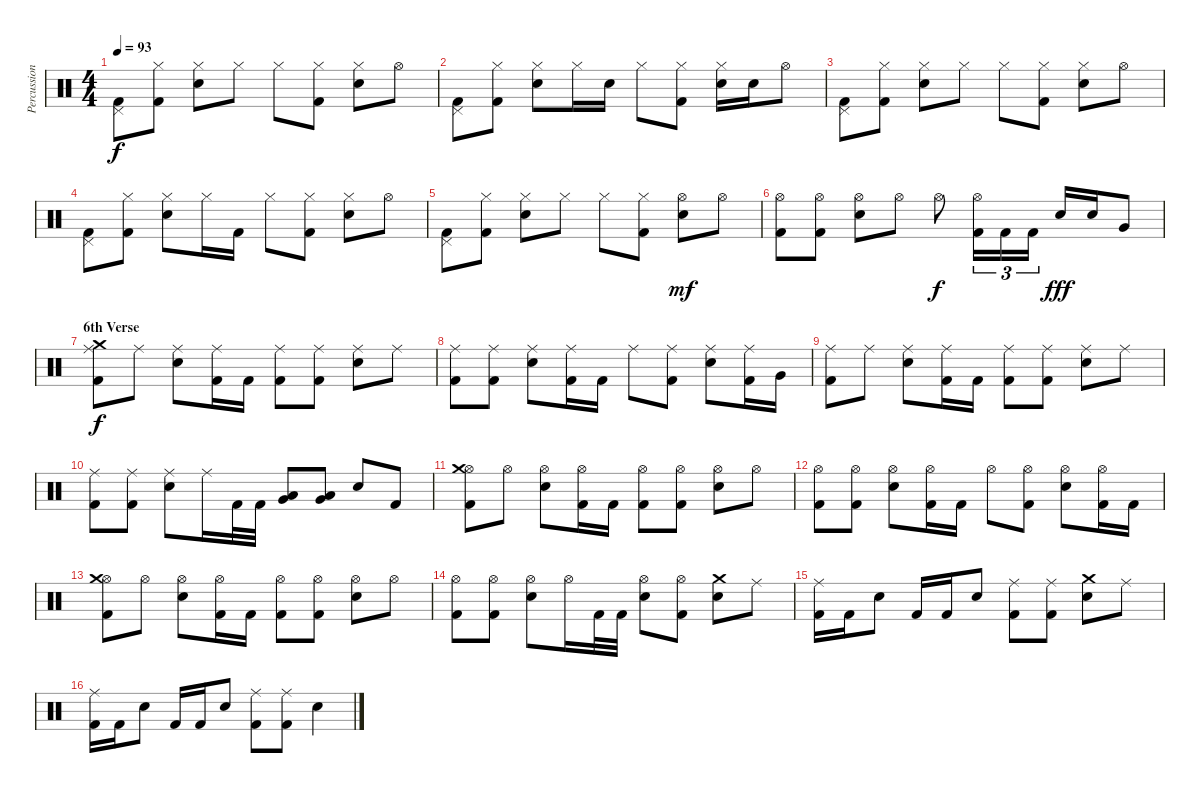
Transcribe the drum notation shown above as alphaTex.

\track ("Percussion" "Percussion") {instrument percussion}
\staff {score}
\articulation defaults
\ts (4 4)
\tempo 93
\clef neutral
\ks c
("Kick (hit) 2" "Pedal Hi-Hat (hit)").8{dy f} ("Kick (hit) 2" "Hi-Hat (closed)").8 ("Electric Snare (hit)" "Hi-Hat (closed)").8 "Hi-Hat (closed)".8 "Hi-Hat (closed)".8 ("Kick (hit) 2" "Hi-Hat (closed)").8 ("Electric Snare (hit)" "Hi-Hat (closed)").8 "Hi-Hat (open)".8 |
("Kick (hit) 2" "Pedal Hi-Hat (hit)").8 ("Kick (hit) 2" "Hi-Hat (closed)").8 ("Electric Snare (hit)" "Hi-Hat (closed)").8 "Hi-Hat (closed)".16 "Electric Snare (hit)".16 "Hi-Hat (closed)".8 ("Kick (hit) 2" "Hi-Hat (closed)").8 ("Electric Snare (hit)" "Hi-Hat (closed)").16 "Electric Snare (hit)".16 "Hi-Hat (open)".8 |
("Kick (hit) 2" "Pedal Hi-Hat (hit)").8 ("Kick (hit) 2" "Hi-Hat (closed)").8 ("Electric Snare (hit)" "Hi-Hat (closed)").8 "Hi-Hat (closed)".8 "Hi-Hat (closed)".8 ("Kick (hit) 2" "Hi-Hat (closed)").8 ("Electric Snare (hit)" "Hi-Hat (closed)").8 "Hi-Hat (open)".8 |
("Kick (hit) 2" "Pedal Hi-Hat (hit)").8 ("Kick (hit) 2" "Hi-Hat (closed)").8 ("Electric Snare (hit)" "Hi-Hat (closed)").8 "Hi-Hat (closed)".16 "Kick (hit) 2".16 "Hi-Hat (closed)".8 ("Kick (hit) 2" "Hi-Hat (closed)").8 ("Electric Snare (hit)" "Hi-Hat (closed)").8 "Hi-Hat (open)".8 |
("Kick (hit) 2" "Pedal Hi-Hat (hit)").8 ("Kick (hit) 2" "Hi-Hat (closed)").8 ("Electric Snare (hit)" "Hi-Hat (closed)").8 "Hi-Hat (closed)".8 "Hi-Hat (closed)".8 ("Kick (hit) 2" "Hi-Hat (closed)").8 ("Electric Snare (hit)" "Hi-Hat (open)").8{dy mf} "Hi-Hat (open)".8 |
("Kick (hit) 2" "Hi-Hat (open)").8 ("Kick (hit) 2" "Hi-Hat (open)").8 ("Electric Snare (hit)" "Hi-Hat (open)").8 "Hi-Hat (open)".8 "Hi-Hat (open)".8{dy f} ("Kick (hit) 2" "Hi-Hat (open)").16{tu (3 2)} "Kick (hit) 2".16{tu (3 2)} "Kick (hit) 2".16{tu (3 2)} "Electric Snare (hit)".16{dy fff} "Electric Snare (hit)".16 "Very Low Tom (hit)".8 |
\section ("" "6th Verse")
("Kick (hit) 2" "Ride (middle)" "Crash medium (hit)").8{dy f} "Ride (middle)".8 ("Electric Snare (hit)" "Ride (middle)").8 ("Kick (hit) 2" "Ride (middle)").16 "Kick (hit) 2".16 ("Kick (hit) 2" "Ride (middle)").8 ("Kick (hit) 2" "Ride (middle)").8 ("Electric Snare (hit)" "Ride (middle)").8 "Ride (middle)".8 |
("Kick (hit) 2" "Ride (middle)").8 ("Kick (hit) 2" "Ride (middle)").8 ("Electric Snare (hit)" "Ride (middle)").8 ("Kick (hit) 2" "Ride (middle)").16 "Kick (hit) 2".16 "Ride (middle)".8 ("Kick (hit) 2" "Ride (middle)").8 ("Electric Snare (hit)" "Ride (middle)").8 ("Kick (hit) 2" "Ride (middle)").16 "Very Low Tom (hit)".16 |
("Kick (hit) 2" "Ride (middle)").8 "Ride (middle)".8 ("Electric Snare (hit)" "Ride (middle)").8 ("Kick (hit) 2" "Ride (middle)").16 "Kick (hit) 2".16 ("Kick (hit) 2" "Ride (middle)").8 ("Kick (hit) 2" "Ride (middle)").8 ("Electric Snare (hit)" "Ride (middle)").8 "Ride (middle)".8 |
("Kick (hit) 2" "Ride (middle)").8 ("Kick (hit) 2" "Ride (middle)").8 ("Electric Snare (hit)" "Ride (middle)").8 "Ride (middle)".16 "Kick (hit) 2".32 "Kick (hit) 2".32 ("Low Tom (hit)" "Very Low Tom (hit)").8 ("Low Tom (hit)" "Very Low Tom (hit)").8 "Electric Snare (hit)".8 "Kick (hit) 2".8 |
("Kick (hit) 2" "Hi-Hat (open)" "Crash medium (hit)").8 "Hi-Hat (open)".8 ("Electric Snare (hit)" "Hi-Hat (open)").8 ("Kick (hit) 2" "Hi-Hat (open)").16 "Kick (hit) 2".16 ("Kick (hit) 2" "Hi-Hat (open)").8 ("Kick (hit) 2" "Hi-Hat (open)").8 ("Electric Snare (hit)" "Hi-Hat (open)").8 "Hi-Hat (open)".8 |
("Kick (hit) 2" "Hi-Hat (open)").8 ("Kick (hit) 2" "Hi-Hat (open)").8 ("Electric Snare (hit)" "Hi-Hat (open)").8 ("Kick (hit) 2" "Hi-Hat (open)").16 "Kick (hit) 2".16 "Hi-Hat (open)".8 ("Kick (hit) 2" "Hi-Hat (open)").8 ("Electric Snare (hit)" "Hi-Hat (open)").8 ("Kick (hit) 2" "Hi-Hat (open)").16 "Kick (hit) 2".16 |
("Kick (hit) 2" "Hi-Hat (open)" "Crash medium (hit)").8 "Hi-Hat (open)".8 ("Electric Snare (hit)" "Hi-Hat (open)").8 ("Kick (hit) 2" "Hi-Hat (open)").16 "Kick (hit) 2".16 ("Kick (hit) 2" "Hi-Hat (open)").8 ("Kick (hit) 2" "Hi-Hat (open)").8 ("Electric Snare (hit)" "Hi-Hat (open)").8 "Hi-Hat (open)".8 |
("Kick (hit) 2" "Hi-Hat (open)").8 ("Kick (hit) 2" "Hi-Hat (open)").8 ("Electric Snare (hit)" "Hi-Hat (open)").8 "Hi-Hat (open)".16 "Kick (hit) 2".32 "Kick (hit) 2".32 ("Electric Snare (hit)" "Hi-Hat (open)").8 ("Kick (hit) 2" "Hi-Hat (open)").8 ("Electric Snare (hit)" "Crash medium (hit)").8 "Ride (middle)".8 |
("Kick (hit) 2" "Ride (middle)").16 "Kick (hit) 2".16 "Electric Snare (hit)".8 "Kick (hit) 2".16 "Kick (hit) 2".16 "Electric Snare (hit)".8 ("Kick (hit) 2" "Ride (middle)").8 ("Kick (hit) 2" "Ride (middle)").8 ("Electric Snare (hit)" "Crash medium (hit)").8 "Ride (middle)".8 |
("Kick (hit) 2" "Ride (middle)").16 "Kick (hit) 2".16 "Electric Snare (hit)".8 "Kick (hit) 2".16 "Kick (hit) 2".16 "Electric Snare (hit)".8 ("Kick (hit) 2" "Ride (middle)").8 ("Kick (hit) 2" "Ride (middle)").8 "Electric Snare (hit)".4
